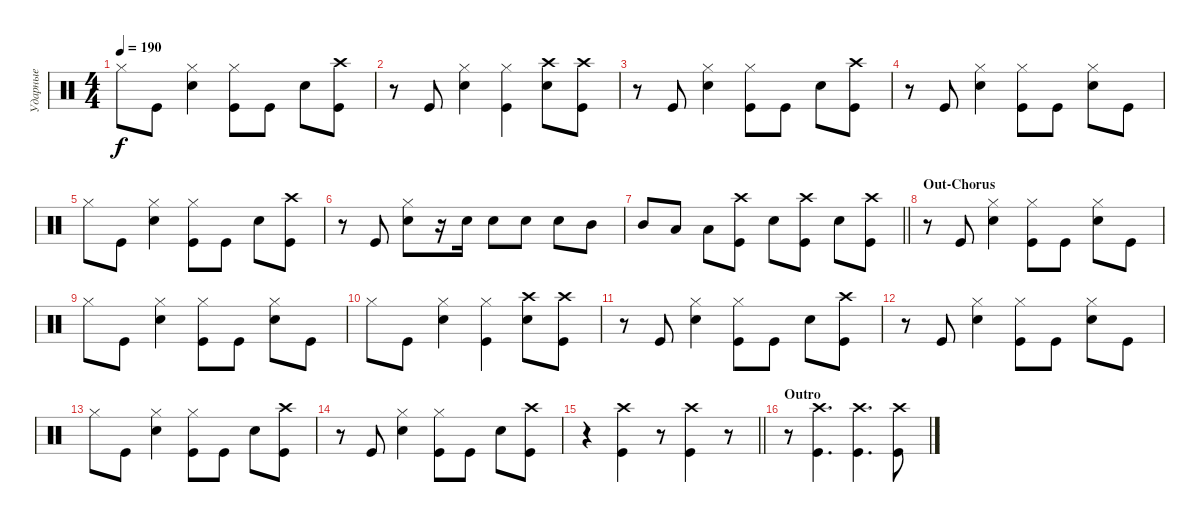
\track ("Ударные" "Ударные") {instrument percussion}
\staff {score}
\articulation defaults
\ts (4 4)
\tempo 190
\clef neutral
\ks aminor "Hi-Hat (closed)".8{dy f} "Kick (hit)".8
("Snare (hit) 2" "Hi-Hat (closed)").4 ("Kick (hit)" "Hi-Hat (closed)").8 "Kick (hit)".8 "Snare (hit) 2".8 ("Kick (hit)" "Crash high (hit)").8 |
r.8 "Kick (hit)".8 ("Snare (hit) 2" "Hi-Hat (closed)").4 ("Kick (hit)" "Hi-Hat (closed)").4 ("Snare (hit) 2" "Crash high (hit)").8 ("Kick (hit)" "Crash high (hit)").8 |
r.8 "Kick (hit)".8 ("Snare (hit) 2" "Hi-Hat (closed)").4 ("Kick (hit)" "Hi-Hat (closed)").8 "Kick (hit)".8 "Snare (hit) 2".8 ("Kick (hit)" "Crash high (hit)").8 |
r.8 "Kick (hit)".8 ("Snare (hit) 2" "Hi-Hat (closed)").4 ("Kick (hit)" "Hi-Hat (closed)").8 "Kick (hit)".8 ("Snare (hit) 2" "Hi-Hat (closed)").8 "Kick (hit)".8 |
"Hi-Hat (closed)".8 "Kick (hit)".8 ("Snare (hit) 2" "Hi-Hat (closed)").4 ("Kick (hit)" "Hi-Hat (closed)").8 "Kick (hit)".8 "Snare (hit) 2".8 ("Kick (hit)" "Crash high (hit)").8 |
r.8 "Kick (hit)".8 ("Snare (hit) 2" "Hi-Hat (closed)").8 r.16 "Snare (hit) 2".16 "Snare (hit) 2".8 "Snare (hit) 2".8 "Snare (hit) 2".8 "Mid Tom (hit)".8 |
\barLineRight lightlight "Mid Tom (hit)".8 "Low Tom (hit)".8 "Low Tom (hit)".8
("Kick (hit)" "Crash high (hit)").8 "Snare (hit) 2".8 ("Kick (hit)" "Crash high (hit)").8 "Snare (hit) 2".8 ("Kick (hit)" "Crash high (hit)").8 |
\section ("" "Out-Chorus")
r.8 "Kick (hit)".8 ("Snare (hit) 2" "Hi-Hat (closed)").4 ("Kick (hit)" "Hi-Hat (closed)").8 "Kick (hit)".8 ("Snare (hit) 2" "Hi-Hat (closed)").8 "Kick (hit)".8 |
"Hi-Hat (closed)".8 "Kick (hit)".8 ("Snare (hit) 2" "Hi-Hat (closed)").4 ("Kick (hit)" "Hi-Hat (closed)").8 "Kick (hit)".8 ("Snare (hit) 2" "Hi-Hat (closed)").8 "Kick (hit)".8 |
"Hi-Hat (closed)".8 "Kick (hit)".8 ("Snare (hit) 2" "Hi-Hat (closed)").4 ("Kick (hit)" "Hi-Hat (closed)").4 ("Snare (hit) 2" "Crash high (hit)").8 ("Kick (hit)" "Crash high (hit)").8 |
r.8 "Kick (hit)".8 ("Snare (hit) 2" "Hi-Hat (closed)").4 ("Kick (hit)" "Hi-Hat (closed)").8 "Kick (hit)".8 "Snare (hit) 2".8 ("Kick (hit)" "Crash high (hit)").8 |
r.8 "Kick (hit)".8 ("Snare (hit) 2" "Hi-Hat (closed)").4 ("Kick (hit)" "Hi-Hat (closed)").8 "Kick (hit)".8 ("Snare (hit) 2" "Hi-Hat (closed)").8 "Kick (hit)".8 |
"Hi-Hat (closed)".8 "Kick (hit)".8 ("Snare (hit) 2" "Hi-Hat (closed)").4 ("Kick (hit)" "Hi-Hat (closed)").8 "Kick (hit)".8 "Snare (hit) 2".8 ("Kick (hit)" "Crash high (hit)").8 |
r.8 "Kick (hit)".8 ("Snare (hit) 2" "Hi-Hat (closed)").4 ("Kick (hit)" "Hi-Hat (closed)").8 "Kick (hit)".8 "Snare (hit) 2".8 ("Kick (hit)" "Crash high (hit)").8 |
\barLineRight lightlight
r.4 ("Kick (hit)" "Crash high (hit)").4 r.8 ("Kick (hit)" "Crash high (hit)").4 r.8 |
\section ("" "Outro")
r.8 ("Kick (hit)" "Crash high (hit)").4{d} ("Kick (hit)" "Crash high (hit)").4{d} ("Kick (hit)" "Crash high (hit)").8
